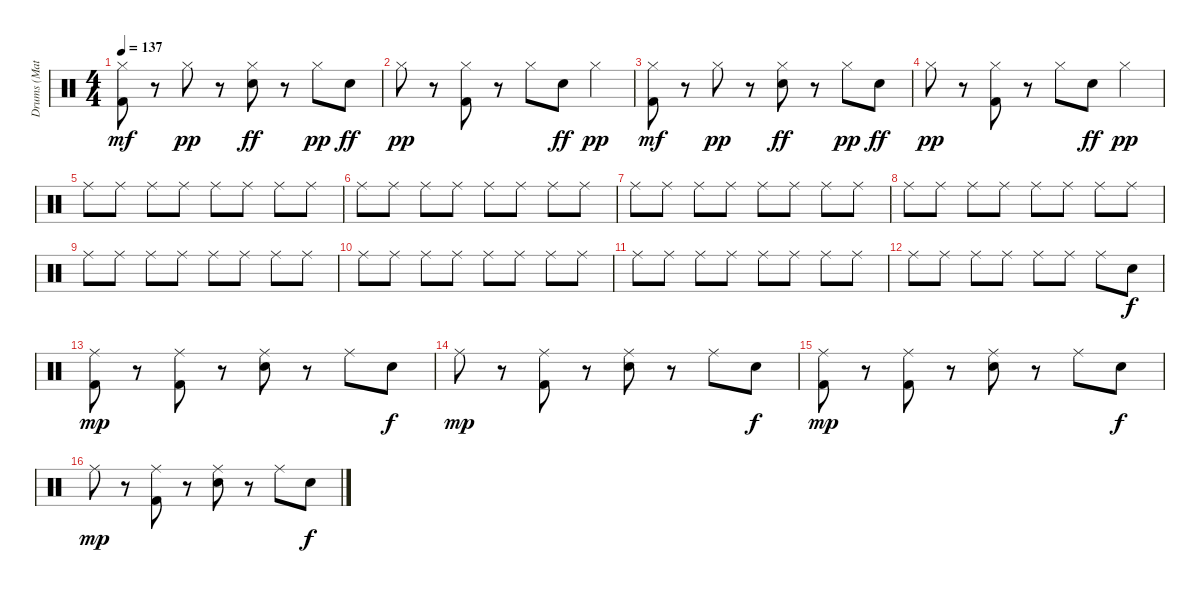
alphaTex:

\track ("Drums (Matthias)" "Drums (Mat") {instrument percussion}
\staff {score}
\articulation defaults
\ts (4 4)
\tempo 137
\clef neutral
\ks c
("Hi-Hat (closed)" "Kick (hit) 2").8{dy mf} r.8 "Hi-Hat (closed)".8{dy pp} r.8 ("Hi-Hat (closed)" "Electric Snare (hit)").8{dy ff} r.8 "Hi-Hat (closed)".8{dy pp} "Electric Snare (hit)".8{dy ff} |
"Hi-Hat (closed)".8{dy pp} r.8 ("Hi-Hat (closed)" "Kick (hit) 2").8 r.8 "Hi-Hat (closed)".8 "Electric Snare (hit)".8{dy ff} "Hi-Hat (closed)".4{dy pp} |
("Hi-Hat (closed)" "Kick (hit) 2").8{dy mf} r.8 "Hi-Hat (closed)".8{dy pp} r.8 ("Hi-Hat (closed)" "Electric Snare (hit)").8{dy ff} r.8 "Hi-Hat (closed)".8{dy pp} "Electric Snare (hit)".8{dy ff} |
"Hi-Hat (closed)".8{dy pp} r.8 ("Hi-Hat (closed)" "Kick (hit) 2").8 r.8 "Hi-Hat (closed)".8 "Electric Snare (hit)".8{dy ff} "Hi-Hat (closed)".4{dy pp} |
"Ride (middle)".8 "Ride (middle)".8 "Ride (middle)".8 "Ride (middle)".8 "Ride (middle)".8 "Ride (middle)".8 "Ride (middle)".8 "Ride (middle)".8 |
"Ride (middle)".8 "Ride (middle)".8 "Ride (middle)".8 "Ride (middle)".8 "Ride (middle)".8 "Ride (middle)".8 "Ride (middle)".8 "Ride (middle)".8 |
"Ride (middle)".8 "Ride (middle)".8 "Ride (middle)".8 "Ride (middle)".8 "Ride (middle)".8 "Ride (middle)".8 "Ride (middle)".8 "Ride (middle)".8 |
"Ride (middle)".8 "Ride (middle)".8 "Ride (middle)".8 "Ride (middle)".8 "Ride (middle)".8 "Ride (middle)".8 "Ride (middle)".8 "Ride (middle)".8 |
"Ride (middle)".8 "Ride (middle)".8 "Ride (middle)".8 "Ride (middle)".8 "Ride (middle)".8 "Ride (middle)".8 "Ride (middle)".8 "Ride (middle)".8 |
"Ride (middle)".8 "Ride (middle)".8 "Ride (middle)".8 "Ride (middle)".8 "Ride (middle)".8 "Ride (middle)".8 "Ride (middle)".8 "Ride (middle)".8 |
"Ride (middle)".8 "Ride (middle)".8 "Ride (middle)".8 "Ride (middle)".8 "Ride (middle)".8 "Ride (middle)".8 "Ride (middle)".8 "Ride (middle)".8 |
"Ride (middle)".8 "Ride (middle)".8 "Ride (middle)".8 "Ride (middle)".8 "Ride (middle)".8 "Ride (middle)".8 "Ride (middle)".8 "Electric Snare (hit)".8{dy f} |
("Ride (middle)" "Kick (hit) 2").8{dy mp} r.8 ("Ride (middle)" "Kick (hit) 2").8 r.8 ("Ride (middle)" "Electric Snare (hit)").8 r.8 "Ride (middle)".8 "Electric Snare (hit)".8{dy f} |
"Ride (middle)".8{dy mp} r.8 ("Ride (middle)" "Kick (hit) 2").8 r.8 ("Ride (middle)" "Electric Snare (hit)").8 r.8 "Ride (middle)".8 "Electric Snare (hit)".8{dy f} |
("Ride (middle)" "Kick (hit) 2").8{dy mp} r.8 ("Ride (middle)" "Kick (hit) 2").8 r.8 ("Ride (middle)" "Electric Snare (hit)").8 r.8 "Ride (middle)".8 "Electric Snare (hit)".8{dy f} |
"Ride (middle)".8{dy mp} r.8 ("Ride (middle)" "Kick (hit) 2").8 r.8 ("Ride (middle)" "Electric Snare (hit)").8 r.8 "Ride (middle)".8 "Electric Snare (hit)".8{dy f}
